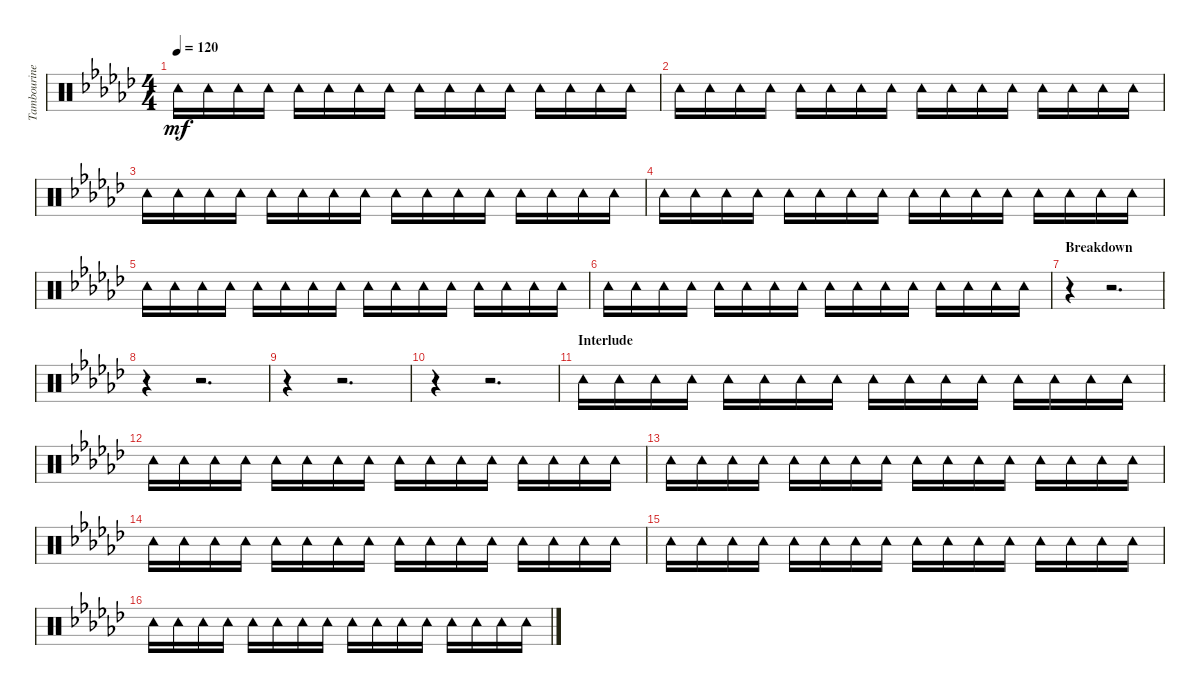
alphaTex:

\track ("Tambourine" "Tambourine") {instrument percussion}
\staff {score}
\articulation defaults
\ts (4 4)
\tempo 120
\clef neutral
\ks ebminor "Tambourine (hit)".16{dy mf} "Tambourine (hit)".16 "Tambourine (hit)".16 "Tambourine (hit)".16 "Tambourine (hit)".16 "Tambourine (hit)".16 "Tambourine (hit)".16 "Tambourine (hit)".16 "Tambourine (hit)".16 "Tambourine (hit)".16 "Tambourine (hit)".16 "Tambourine (hit)".16 "Tambourine (hit)".16 "Tambourine (hit)".16 "Tambourine (hit)".16 "Tambourine (hit)".16
|
"Tambourine (hit)".16 "Tambourine (hit)".16 "Tambourine (hit)".16 "Tambourine (hit)".16 "Tambourine (hit)".16 "Tambourine (hit)".16 "Tambourine (hit)".16 "Tambourine (hit)".16 "Tambourine (hit)".16 "Tambourine (hit)".16 "Tambourine (hit)".16 "Tambourine (hit)".16 "Tambourine (hit)".16 "Tambourine (hit)".16 "Tambourine (hit)".16 "Tambourine (hit)".16 |
"Tambourine (hit)".16 "Tambourine (hit)".16 "Tambourine (hit)".16 "Tambourine (hit)".16 "Tambourine (hit)".16 "Tambourine (hit)".16 "Tambourine (hit)".16 "Tambourine (hit)".16 "Tambourine (hit)".16 "Tambourine (hit)".16 "Tambourine (hit)".16 "Tambourine (hit)".16 "Tambourine (hit)".16 "Tambourine (hit)".16 "Tambourine (hit)".16 "Tambourine (hit)".16 |
"Tambourine (hit)".16 "Tambourine (hit)".16 "Tambourine (hit)".16 "Tambourine (hit)".16 "Tambourine (hit)".16 "Tambourine (hit)".16 "Tambourine (hit)".16 "Tambourine (hit)".16 "Tambourine (hit)".16 "Tambourine (hit)".16 "Tambourine (hit)".16 "Tambourine (hit)".16 "Tambourine (hit)".16 "Tambourine (hit)".16 "Tambourine (hit)".16 "Tambourine (hit)".16 |
"Tambourine (hit)".16 "Tambourine (hit)".16 "Tambourine (hit)".16 "Tambourine (hit)".16 "Tambourine (hit)".16 "Tambourine (hit)".16 "Tambourine (hit)".16 "Tambourine (hit)".16 "Tambourine (hit)".16 "Tambourine (hit)".16 "Tambourine (hit)".16 "Tambourine (hit)".16 "Tambourine (hit)".16 "Tambourine (hit)".16 "Tambourine (hit)".16 "Tambourine (hit)".16 |
"Tambourine (hit)".16 "Tambourine (hit)".16 "Tambourine (hit)".16 "Tambourine (hit)".16 "Tambourine (hit)".16 "Tambourine (hit)".16 "Tambourine (hit)".16 "Tambourine (hit)".16 "Tambourine (hit)".16 "Tambourine (hit)".16 "Tambourine (hit)".16 "Tambourine (hit)".16 "Tambourine (hit)".16 "Tambourine (hit)".16 "Tambourine (hit)".16 "Tambourine (hit)".16 |
\section ("" "Breakdown")
r.4 r.2{d} |
r.4 r.2{d} |
r.4 r.2{d} |
r.4 r.2{d} |
\section ("" "Interlude")
"Tambourine (hit)".16 "Tambourine (hit)".16 "Tambourine (hit)".16 "Tambourine (hit)".16 "Tambourine (hit)".16 "Tambourine (hit)".16 "Tambourine (hit)".16 "Tambourine (hit)".16 "Tambourine (hit)".16 "Tambourine (hit)".16 "Tambourine (hit)".16 "Tambourine (hit)".16 "Tambourine (hit)".16 "Tambourine (hit)".16 "Tambourine (hit)".16 "Tambourine (hit)".16 |
"Tambourine (hit)".16 "Tambourine (hit)".16 "Tambourine (hit)".16 "Tambourine (hit)".16 "Tambourine (hit)".16 "Tambourine (hit)".16 "Tambourine (hit)".16 "Tambourine (hit)".16 "Tambourine (hit)".16 "Tambourine (hit)".16 "Tambourine (hit)".16 "Tambourine (hit)".16 "Tambourine (hit)".16 "Tambourine (hit)".16 "Tambourine (hit)".16 "Tambourine (hit)".16 |
"Tambourine (hit)".16 "Tambourine (hit)".16 "Tambourine (hit)".16 "Tambourine (hit)".16 "Tambourine (hit)".16 "Tambourine (hit)".16 "Tambourine (hit)".16 "Tambourine (hit)".16 "Tambourine (hit)".16 "Tambourine (hit)".16 "Tambourine (hit)".16 "Tambourine (hit)".16 "Tambourine (hit)".16 "Tambourine (hit)".16 "Tambourine (hit)".16 "Tambourine (hit)".16 |
"Tambourine (hit)".16 "Tambourine (hit)".16 "Tambourine (hit)".16 "Tambourine (hit)".16 "Tambourine (hit)".16 "Tambourine (hit)".16 "Tambourine (hit)".16 "Tambourine (hit)".16 "Tambourine (hit)".16 "Tambourine (hit)".16 "Tambourine (hit)".16 "Tambourine (hit)".16 "Tambourine (hit)".16 "Tambourine (hit)".16 "Tambourine (hit)".16 "Tambourine (hit)".16 |
"Tambourine (hit)".16 "Tambourine (hit)".16 "Tambourine (hit)".16 "Tambourine (hit)".16 "Tambourine (hit)".16 "Tambourine (hit)".16 "Tambourine (hit)".16 "Tambourine (hit)".16 "Tambourine (hit)".16 "Tambourine (hit)".16 "Tambourine (hit)".16 "Tambourine (hit)".16 "Tambourine (hit)".16 "Tambourine (hit)".16 "Tambourine (hit)".16 "Tambourine (hit)".16 |
"Tambourine (hit)".16 "Tambourine (hit)".16 "Tambourine (hit)".16 "Tambourine (hit)".16 "Tambourine (hit)".16 "Tambourine (hit)".16 "Tambourine (hit)".16 "Tambourine (hit)".16 "Tambourine (hit)".16 "Tambourine (hit)".16 "Tambourine (hit)".16 "Tambourine (hit)".16 "Tambourine (hit)".16 "Tambourine (hit)".16 "Tambourine (hit)".16 "Tambourine (hit)".16
